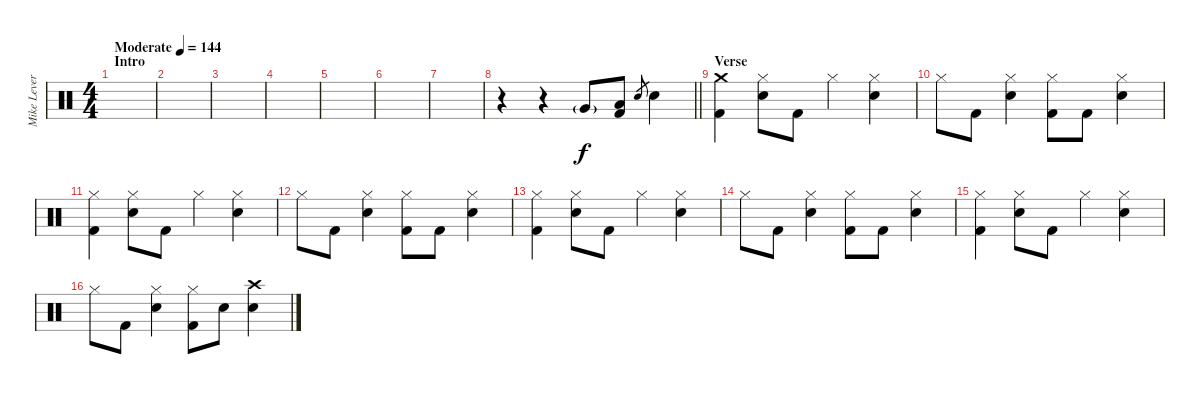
\track ("Mike Leverence - Drums" "Mike Lever") {instrument percussion}
\staff {score}
\articulation defaults
\ts (4 4)
\section ("" "Intro")
\tempo (144 "Moderate")
\clef neutral
\ks c
|
|
|
|
|
|
|
\barLineRight lightlight
r.4 r.4 "Very Low Tom (hit)"{g}.8 ("Low Tom (hit)" "Kick (hit) 2").8{dy f} "Electric Snare (hit)".8{gr} "Electric Snare (hit)".4 |
\section ("" "Verse")
("Crash medium (hit)" "Kick (hit) 2").4 ("Hi-Hat (closed)" "Electric Snare (hit)").8 "Kick (hit) 2".8 "Hi-Hat (closed)".4 ("Hi-Hat (closed)" "Electric Snare (hit)").4 |
"Hi-Hat (closed)".8 "Kick (hit) 2".8 ("Hi-Hat (closed)" "Electric Snare (hit)").4 ("Hi-Hat (closed)" "Kick (hit) 2").8 "Kick (hit) 2".8 ("Hi-Hat (closed)" "Electric Snare (hit)").4 |
("Hi-Hat (closed)" "Kick (hit) 2").4 ("Hi-Hat (closed)" "Electric Snare (hit)").8 "Kick (hit) 2".8 "Hi-Hat (closed)".4 ("Hi-Hat (closed)" "Electric Snare (hit)").4 |
"Hi-Hat (closed)".8 "Kick (hit) 2".8 ("Hi-Hat (closed)" "Electric Snare (hit)").4 ("Hi-Hat (closed)" "Kick (hit) 2").8 "Kick (hit) 2".8 ("Hi-Hat (closed)" "Electric Snare (hit)").4 |
("Hi-Hat (closed)" "Kick (hit) 2").4 ("Hi-Hat (closed)" "Electric Snare (hit)").8 "Kick (hit) 2".8 "Hi-Hat (closed)".4 ("Hi-Hat (closed)" "Electric Snare (hit)").4 |
"Hi-Hat (closed)".8 "Kick (hit) 2".8 ("Hi-Hat (closed)" "Electric Snare (hit)").4 ("Hi-Hat (closed)" "Kick (hit) 2").8 "Kick (hit) 2".8 ("Hi-Hat (closed)" "Electric Snare (hit)").4 |
("Hi-Hat (closed)" "Kick (hit) 2").4 ("Hi-Hat (closed)" "Electric Snare (hit)").8 "Kick (hit) 2".8 "Hi-Hat (closed)".4 ("Hi-Hat (closed)" "Electric Snare (hit)").4 |
"Hi-Hat (closed)".8 "Kick (hit) 2".8 ("Hi-Hat (closed)" "Electric Snare (hit)").4 ("Hi-Hat (closed)" "Kick (hit) 2").8 "Electric Snare (hit)".8 ("Crash high (hit)" "Electric Snare (hit)").4
